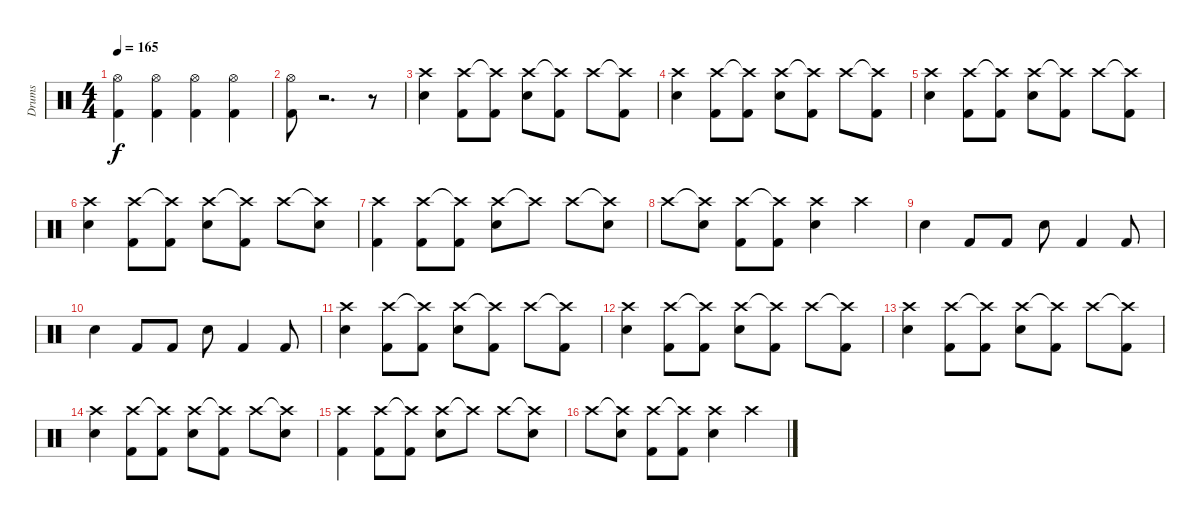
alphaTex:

\track ("Drums" "Drums") {instrument percussion}
\staff {score}
\articulation defaults
\ts (4 4)
\tempo 165
\clef neutral
\ks c
("Hi-Hat (open)" "Kick (hit) 2").4{dy f} ("Hi-Hat (open)" "Kick (hit) 2").4 ("Hi-Hat (open)" "Kick (hit) 2").4 ("Hi-Hat (open)" "Kick (hit) 2").4 |
("Hi-Hat (open)" "Kick (hit) 2").8 r.2{d} r.8 |
("Crash high (hit)" "Snare (hit) 2").4 ("Crash high (hit)" "Kick (hit) 2").8 ("Crash high (hit)"{t} "Kick (hit) 2").8 ("Crash high (hit)" "Snare (hit) 2").8 ("Crash high (hit)"{t} "Kick (hit) 2").8 "Crash high (hit)".8 ("Crash high (hit)"{t} "Kick (hit) 2").8 |
("Crash high (hit)" "Snare (hit) 2").4 ("Crash high (hit)" "Kick (hit) 2").8 ("Crash high (hit)"{t} "Kick (hit) 2").8 ("Crash high (hit)" "Snare (hit) 2").8 ("Crash high (hit)"{t} "Kick (hit) 2").8 "Crash high (hit)".8 ("Crash high (hit)"{t} "Kick (hit) 2").8 |
("Crash high (hit)" "Snare (hit) 2").4 ("Crash high (hit)" "Kick (hit) 2").8 ("Crash high (hit)"{t} "Kick (hit) 2").8 ("Crash high (hit)" "Snare (hit) 2").8 ("Crash high (hit)"{t} "Kick (hit) 2").8 "Crash high (hit)".8 ("Crash high (hit)"{t} "Kick (hit) 2").8 |
("Crash high (hit)" "Snare (hit) 2").4 ("Crash high (hit)" "Kick (hit) 2").8 ("Crash high (hit)"{t} "Kick (hit) 2").8 ("Crash high (hit)" "Snare (hit) 2").8 ("Crash high (hit)"{t} "Kick (hit) 2").8 "Crash high (hit)".8 ("Crash high (hit)"{t} "Snare (hit) 2").8 |
("Crash high (hit)" "Kick (hit) 2").4 ("Crash high (hit)" "Kick (hit) 2").8 ("Crash high (hit)"{t} "Kick (hit) 2").8 ("Crash high (hit)" "Snare (hit) 2").8 "Crash high (hit)"{t}.8 "Crash high (hit)".8 ("Crash high (hit)"{t} "Snare (hit) 2").8 |
"Crash high (hit)".8 ("Crash high (hit)"{t} "Snare (hit) 2").8 ("Crash high (hit)" "Kick (hit) 2").8 ("Crash high (hit)"{t} "Kick (hit) 2").8 ("Crash high (hit)" "Snare (hit) 2").4 "Crash high (hit)".4 |
"Snare (hit) 2".4 "Kick (hit) 2".8 "Kick (hit) 2".8 "Snare (hit) 2".8 "Kick (hit) 2".4 "Kick (hit) 2".8 |
"Snare (hit) 2".4 "Kick (hit) 2".8 "Kick (hit) 2".8 "Snare (hit) 2".8 "Kick (hit) 2".4 "Kick (hit) 2".8 |
("Crash high (hit)" "Snare (hit) 2").4 ("Crash high (hit)" "Kick (hit) 2").8 ("Crash high (hit)"{t} "Kick (hit) 2").8 ("Crash high (hit)" "Snare (hit) 2").8 ("Crash high (hit)"{t} "Kick (hit) 2").8 "Crash high (hit)".8 ("Crash high (hit)"{t} "Kick (hit) 2").8 |
("Crash high (hit)" "Snare (hit) 2").4 ("Crash high (hit)" "Kick (hit) 2").8 ("Crash high (hit)"{t} "Kick (hit) 2").8 ("Crash high (hit)" "Snare (hit) 2").8 ("Crash high (hit)"{t} "Kick (hit) 2").8 "Crash high (hit)".8 ("Crash high (hit)"{t} "Kick (hit) 2").8 |
("Crash high (hit)" "Snare (hit) 2").4 ("Crash high (hit)" "Kick (hit) 2").8 ("Crash high (hit)"{t} "Kick (hit) 2").8 ("Crash high (hit)" "Snare (hit) 2").8 ("Crash high (hit)"{t} "Kick (hit) 2").8 "Crash high (hit)".8 ("Crash high (hit)"{t} "Kick (hit) 2").8 |
("Crash high (hit)" "Snare (hit) 2").4 ("Crash high (hit)" "Kick (hit) 2").8 ("Crash high (hit)"{t} "Kick (hit) 2").8 ("Crash high (hit)" "Snare (hit) 2").8 ("Crash high (hit)"{t} "Kick (hit) 2").8 "Crash high (hit)".8 ("Crash high (hit)"{t} "Snare (hit) 2").8 |
("Crash high (hit)" "Kick (hit) 2").4 ("Crash high (hit)" "Kick (hit) 2").8 ("Crash high (hit)"{t} "Kick (hit) 2").8 ("Crash high (hit)" "Snare (hit) 2").8 "Crash high (hit)"{t}.8 "Crash high (hit)".8 ("Crash high (hit)"{t} "Snare (hit) 2").8 |
"Crash high (hit)".8 ("Crash high (hit)"{t} "Snare (hit) 2").8 ("Crash high (hit)" "Kick (hit) 2").8 ("Crash high (hit)"{t} "Kick (hit) 2").8 ("Crash high (hit)" "Snare (hit) 2").4 "Crash high (hit)".4
